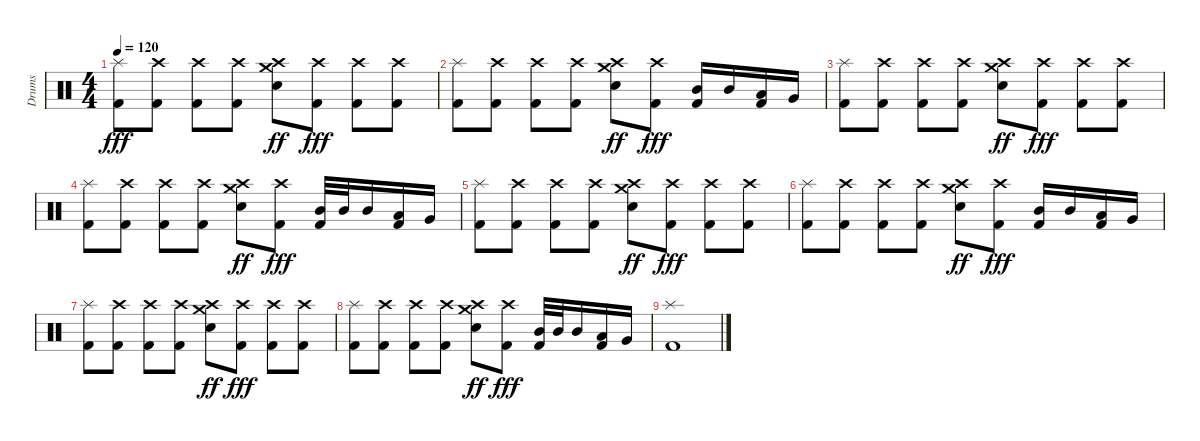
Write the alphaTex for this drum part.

\track ("Drums" "Drums") {instrument percussion}
\staff {score}
\articulation defaults
\ts (4 4)
\tempo 120
\clef neutral
\ks c
("Kick (hit) 2" "Splash (hit)").8{dy fff} ("Kick (hit) 2" "Crash high (hit)").8 ("Kick (hit) 2" "Crash high (hit)").8 ("Kick (hit) 2" "Crash high (hit)").8 ("Snare (hit) 2" "Crash high (hit)" "Crash medium (hit)").8{dy ff} ("Kick (hit) 2" "Crash high (hit)").8{dy fff} ("Kick (hit) 2" "Crash high (hit)").8 ("Kick (hit) 2" "Crash high (hit)").8 |
("Kick (hit) 2" "Splash (hit)").8 ("Kick (hit) 2" "Crash high (hit)").8 ("Kick (hit) 2" "Crash high (hit)").8 ("Kick (hit) 2" "Crash high (hit)").8 ("Snare (hit) 2" "Crash high (hit)" "Crash medium (hit)").8{dy ff} ("Kick (hit) 2" "Crash high (hit)").8{dy fff} ("Kick (hit) 2" "Mid Tom (hit)").16 "Mid Tom (hit)".16 ("Kick (hit) 2" "Low Tom (hit)").16 "Very Low Tom (hit)".16 |
("Kick (hit) 2" "Splash (hit)").8 ("Kick (hit) 2" "Crash high (hit)").8 ("Kick (hit) 2" "Crash high (hit)").8 ("Kick (hit) 2" "Crash high (hit)").8 ("Snare (hit) 2" "Crash high (hit)" "Crash medium (hit)").8{dy ff} ("Kick (hit) 2" "Crash high (hit)").8{dy fff} ("Kick (hit) 2" "Crash high (hit)").8 ("Kick (hit) 2" "Crash high (hit)").8 |
("Kick (hit) 2" "Splash (hit)").8 ("Kick (hit) 2" "Crash high (hit)").8 ("Kick (hit) 2" "Crash high (hit)").8 ("Kick (hit) 2" "Crash high (hit)").8 ("Snare (hit) 2" "Crash high (hit)" "Crash medium (hit)").8{dy ff} ("Kick (hit) 2" "Crash high (hit)").8{dy fff} ("Kick (hit) 2" "Mid Tom (hit)").32 "Mid Tom (hit)".32 "Mid Tom (hit)".16 ("Kick (hit) 2" "Low Tom (hit)").16 "Very Low Tom (hit)".16 |
("Kick (hit) 2" "Splash (hit)").8 ("Kick (hit) 2" "Crash high (hit)").8 ("Kick (hit) 2" "Crash high (hit)").8 ("Kick (hit) 2" "Crash high (hit)").8 ("Snare (hit) 2" "Crash high (hit)" "Crash medium (hit)").8{dy ff} ("Kick (hit) 2" "Crash high (hit)").8{dy fff} ("Kick (hit) 2" "Crash high (hit)").8 ("Kick (hit) 2" "Crash high (hit)").8 |
("Kick (hit) 2" "Splash (hit)").8 ("Kick (hit) 2" "Crash high (hit)").8 ("Kick (hit) 2" "Crash high (hit)").8 ("Kick (hit) 2" "Crash high (hit)").8 ("Snare (hit) 2" "Crash high (hit)" "Crash medium (hit)").8{dy ff} ("Kick (hit) 2" "Crash high (hit)").8{dy fff} ("Kick (hit) 2" "Mid Tom (hit)").16 "Mid Tom (hit)".16 ("Kick (hit) 2" "Low Tom (hit)").16 "Very Low Tom (hit)".16 |
("Kick (hit) 2" "Splash (hit)").8 ("Kick (hit) 2" "Crash high (hit)").8 ("Kick (hit) 2" "Crash high (hit)").8 ("Kick (hit) 2" "Crash high (hit)").8 ("Snare (hit) 2" "Crash high (hit)" "Crash medium (hit)").8{dy ff} ("Kick (hit) 2" "Crash high (hit)").8{dy fff} ("Kick (hit) 2" "Crash high (hit)").8 ("Kick (hit) 2" "Crash high (hit)").8 |
("Kick (hit) 2" "Splash (hit)").8 ("Kick (hit) 2" "Crash high (hit)").8 ("Kick (hit) 2" "Crash high (hit)").8 ("Kick (hit) 2" "Crash high (hit)").8 ("Snare (hit) 2" "Crash high (hit)" "Crash medium (hit)").8{dy ff} ("Kick (hit) 2" "Crash high (hit)").8{dy fff} ("Kick (hit) 2" "Mid Tom (hit)").32 "Mid Tom (hit)".32 "Mid Tom (hit)".16 ("Kick (hit) 2" "Low Tom (hit)").16 "Very Low Tom (hit)".16 |
("Kick (hit) 2" "Splash (hit)").1
